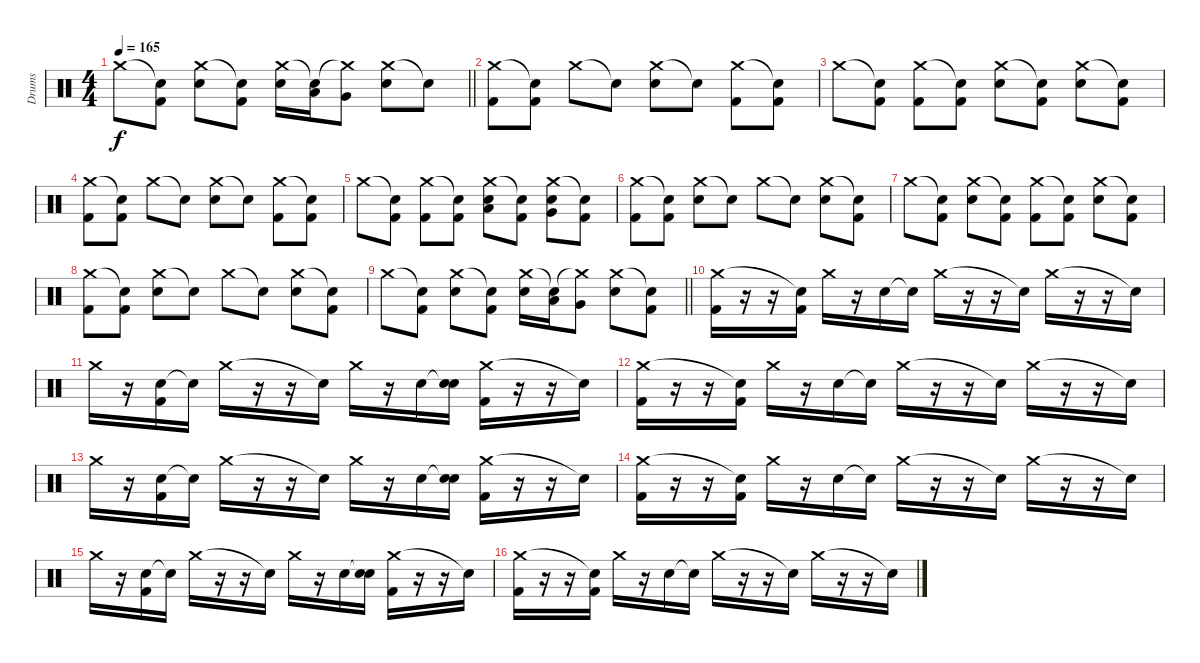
\track ("Drums" "Drums") {instrument percussion}
\staff {score}
\articulation defaults
\ts (4 4)
\tempo 165
\clef neutral
\barLineRight lightlight
\ks c "Crash medium (hit)".8{dy f}
("Snare (hit)"{t} "Kick (hit) 2").8 ("Crash medium (hit)" "Electric Snare (hit)").8 ("Snare (hit)"{t} "Kick (hit) 2").8 ("Crash medium (hit)" "Electric Snare (hit)").16 ("Snare (hit)"{t} "Low Tom (hit)").16 ("Crash medium (hit)"{t} "Very Low Tom (hit)").8 ("Crash medium (hit)" "Electric Snare (hit)").8 "Snare (hit)"{t}.8 |
("Crash medium (hit)" "Kick (hit) 2").8 ("Snare (hit)"{t} "Kick (hit) 2").8 "Crash medium (hit)".8 "Snare (hit)"{t}.8 ("Crash medium (hit)" "Electric Snare (hit)").8 "Snare (hit)"{t}.8 ("Crash medium (hit)" "Kick (hit) 2").8 ("Snare (hit)"{t} "Kick (hit) 2").8 |
"Crash medium (hit)".8 ("Snare (hit)"{t} "Kick (hit) 2").8 ("Crash medium (hit)" "Kick (hit) 2").8 ("Snare (hit)"{t} "Kick (hit) 2").8 ("Crash medium (hit)" "Electric Snare (hit)").8 ("Snare (hit)"{t} "Kick (hit) 2").8 ("Crash medium (hit)" "Electric Snare (hit)").8 ("Snare (hit)"{t} "Kick (hit) 2").8 |
("Crash medium (hit)" "Kick (hit) 2").8 ("Snare (hit)"{t} "Kick (hit) 2").8 "Crash medium (hit)".8 "Snare (hit)"{t}.8 ("Crash medium (hit)" "Electric Snare (hit)").8 "Snare (hit)"{t}.8 ("Crash medium (hit)" "Kick (hit) 2").8 ("Snare (hit)"{t} "Kick (hit) 2").8 |
"Crash medium (hit)".8 ("Snare (hit)"{t} "Kick (hit) 2").8 ("Crash medium (hit)" "Kick (hit) 2").8 ("Snare (hit)"{t} "Kick (hit) 2").8 ("Crash medium (hit)" "Electric Snare (hit)" "Low Tom (hit)").8 ("Snare (hit)"{t} "Kick (hit) 2").8 ("Crash medium (hit)" "Very Low Tom (hit)" "Electric Snare (hit)").8 ("Snare (hit)"{t} "Kick (hit) 2").8 |
("Crash medium (hit)" "Kick (hit) 2").8 ("Snare (hit)"{t} "Kick (hit) 2").8 ("Crash medium (hit)" "Electric Snare (hit)").8 "Snare (hit)"{t}.8 "Crash medium (hit)".8 "Snare (hit)"{t}.8 ("Crash medium (hit)" "Electric Snare (hit)").8 ("Snare (hit)"{t} "Kick (hit) 2").8 |
"Crash medium (hit)".8 ("Snare (hit)"{t} "Kick (hit) 2").8 ("Crash medium (hit)" "Electric Snare (hit)").8 ("Snare (hit)"{t} "Kick (hit) 2").8 ("Crash medium (hit)" "Kick (hit) 2").8 ("Snare (hit)"{t} "Kick (hit) 2").8 ("Crash medium (hit)" "Electric Snare (hit)").8 ("Snare (hit)"{t} "Kick (hit) 2").8 |
("Crash medium (hit)" "Kick (hit) 2").8 ("Snare (hit)"{t} "Kick (hit) 2").8 ("Crash medium (hit)" "Electric Snare (hit)").8 "Snare (hit)"{t}.8 "Crash medium (hit)".8 "Snare (hit)"{t}.8 ("Crash medium (hit)" "Electric Snare (hit)").8 ("Snare (hit)"{t} "Kick (hit) 2").8 |
\barLineRight lightlight "Crash medium (hit)".8
("Snare (hit)"{t} "Kick (hit) 2").8 ("Crash medium (hit)" "Electric Snare (hit)").8 ("Snare (hit)"{t} "Kick (hit) 2").8 ("Crash medium (hit)" "Electric Snare (hit)").16 ("Snare (hit)"{t} "Low Tom (hit)").16 ("Crash medium (hit)"{t} "Very Low Tom (hit)").8 ("Crash medium (hit)" "Electric Snare (hit)").8 ("Snare (hit)"{t} "Kick (hit) 2").8 |
("Crash medium (hit)" "Kick (hit) 2").16 r.16 r.16 ("Snare (hit)"{t} "Kick (hit) 2").16 "Crash medium (hit)".16 r.16 "Electric Snare (hit)".16 "Snare (hit)"{t}.16 "Crash medium (hit)".16 r.16 r.16 "Snare (hit)"{t}.16 "Crash medium (hit)".16 r.16 r.16 "Snare (hit)"{t}.16 |
"Crash medium (hit)".16 r.16 ("Electric Snare (hit)" "Kick (hit) 2").16 "Snare (hit)"{t}.16 "Crash medium (hit)".16 r.16 r.16 "Snare (hit)"{t}.16 "Crash medium (hit)".16 r.16 "Electric Snare (hit)".16 ("Snare (hit)"{t} "Electric Snare (hit)").16 ("Crash medium (hit)" "Kick (hit) 2").16 r.16 r.16 "Snare (hit)"{t}.16 |
("Crash medium (hit)" "Kick (hit) 2").16 r.16 r.16 ("Snare (hit)"{t} "Kick (hit) 2").16 "Crash medium (hit)".16 r.16 "Electric Snare (hit)".16 "Snare (hit)"{t}.16 "Crash medium (hit)".16 r.16 r.16 "Snare (hit)"{t}.16 "Crash medium (hit)".16 r.16 r.16 "Snare (hit)"{t}.16 |
"Crash medium (hit)".16 r.16 ("Electric Snare (hit)" "Kick (hit) 2").16 "Snare (hit)"{t}.16 "Crash medium (hit)".16 r.16 r.16 "Snare (hit)"{t}.16 "Crash medium (hit)".16 r.16 "Electric Snare (hit)".16 ("Snare (hit)"{t} "Electric Snare (hit)").16 ("Crash medium (hit)" "Kick (hit) 2").16 r.16 r.16 "Snare (hit)"{t}.16 |
("Crash medium (hit)" "Kick (hit) 2").16 r.16 r.16 ("Snare (hit)"{t} "Kick (hit) 2").16 "Crash medium (hit)".16 r.16 "Electric Snare (hit)".16 "Snare (hit)"{t}.16 "Crash medium (hit)".16 r.16 r.16 "Snare (hit)"{t}.16 "Crash medium (hit)".16 r.16 r.16 "Snare (hit)"{t}.16 |
"Crash medium (hit)".16 r.16 ("Electric Snare (hit)" "Kick (hit) 2").16 "Snare (hit)"{t}.16 "Crash medium (hit)".16 r.16 r.16 "Snare (hit)"{t}.16 "Crash medium (hit)".16 r.16 "Electric Snare (hit)".16 ("Snare (hit)"{t} "Electric Snare (hit)").16 ("Crash medium (hit)" "Kick (hit) 2").16 r.16 r.16 "Snare (hit)"{t}.16 |
("Crash medium (hit)" "Kick (hit) 2").16 r.16 r.16 ("Snare (hit)"{t} "Kick (hit) 2").16 "Crash medium (hit)".16 r.16 "Electric Snare (hit)".16 "Snare (hit)"{t}.16 "Crash medium (hit)".16 r.16 r.16 "Snare (hit)"{t}.16 "Crash medium (hit)".16 r.16 r.16 "Snare (hit)"{t}.16
